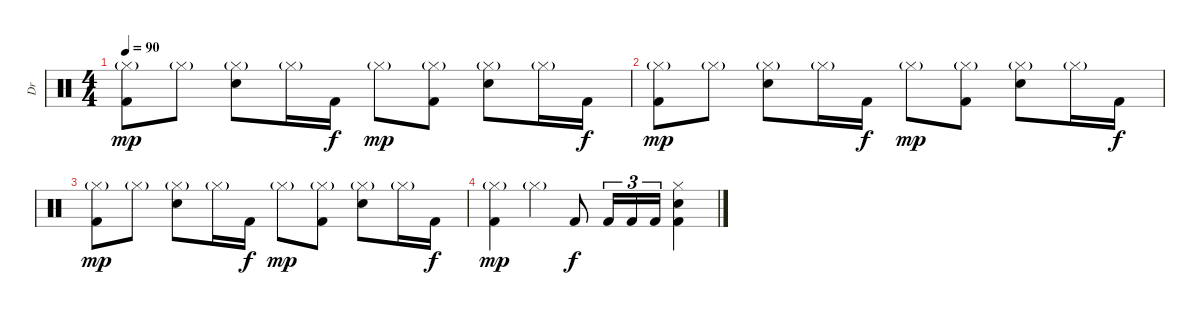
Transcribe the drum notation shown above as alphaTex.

\track ("Dr" "Dr") {instrument percussion}
\staff {score}
\articulation defaults
\ts (4 4)
\tempo 90
\clef neutral
\ks c
("Hi-Hat (closed)"{g} "Kick (hit) 2").8{dy mp} "Hi-Hat (closed)"{g}.8 ("Hi-Hat (closed)"{g} "Electric Snare (hit)").8 "Hi-Hat (closed)"{g}.16 "Kick (hit) 2".16{dy f} "Hi-Hat (closed)"{g}.8{dy mp} ("Hi-Hat (closed)"{g} "Kick (hit) 2").8 ("Hi-Hat (closed)"{g} "Electric Snare (hit)").8 "Hi-Hat (closed)"{g}.16 "Kick (hit) 2".16{dy f} |
("Hi-Hat (closed)"{g} "Kick (hit) 2").8{dy mp} "Hi-Hat (closed)"{g}.8 ("Hi-Hat (closed)"{g} "Electric Snare (hit)").8 "Hi-Hat (closed)"{g}.16 "Kick (hit) 2".16{dy f} "Hi-Hat (closed)"{g}.8{dy mp} ("Hi-Hat (closed)"{g} "Kick (hit) 2").8 ("Hi-Hat (closed)"{g} "Electric Snare (hit)").8 "Hi-Hat (closed)"{g}.16 "Kick (hit) 2".16{dy f} |
("Hi-Hat (closed)"{g} "Kick (hit) 2").8{dy mp} "Hi-Hat (closed)"{g}.8 ("Hi-Hat (closed)"{g} "Electric Snare (hit)").8 "Hi-Hat (closed)"{g}.16 "Kick (hit) 2".16{dy f} "Hi-Hat (closed)"{g}.8{dy mp} ("Hi-Hat (closed)"{g} "Kick (hit) 2").8 ("Hi-Hat (closed)"{g} "Electric Snare (hit)").8 "Hi-Hat (closed)"{g}.16 "Kick (hit) 2".16{dy f} |
("Hi-Hat (closed)"{g} "Kick (hit) 2").4{dy mp} "Hi-Hat (closed)"{g}.4 "Kick (hit) 2".8{dy f} "Kick (hit) 2".16{tu (3 2)} "Kick (hit) 2".16{tu (3 2)} "Kick (hit) 2".16{tu (3 2)} ("Hi-Hat (closed)" "Electric Snare (hit)" "Kick (hit) 2").4
